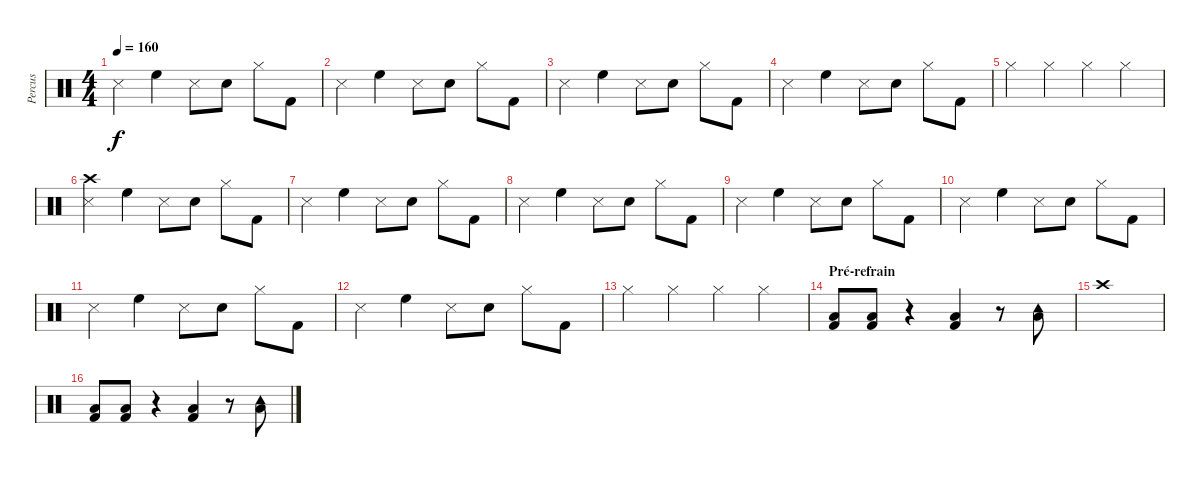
\track ("Percus" "Percus") {instrument percussion}
\staff {score}
\articulation defaults
\ts (4 4)
\tempo 160
\clef neutral
\ks c "Snare (side stick) 3".4{dy f} "High Floor Tom (hit)".4 "Snare (side stick) 3".8 "Snare (hit) 2".8 "Hi-Hat (closed)".8 "Kick (hit) 2".8
|
"Snare (side stick) 3".4 "High Floor Tom (hit)".4 "Snare (side stick) 3".8 "Snare (hit) 2".8 "Hi-Hat (closed)".8 "Kick (hit) 2".8 |
"Snare (side stick) 3".4 "High Floor Tom (hit)".4 "Snare (side stick) 3".8 "Snare (hit) 2".8 "Hi-Hat (closed)".8 "Kick (hit) 2".8 |
"Snare (side stick) 3".4 "High Floor Tom (hit)".4 "Snare (side stick) 3".8 "Snare (hit) 2".8 "Hi-Hat (closed)".8 "Kick (hit) 2".8 |
"Hi-Hat (closed)".4 "Hi-Hat (closed)".4 "Hi-Hat (closed)".4 "Hi-Hat (closed)".4 |
("Crash high (hit)" "Snare (side stick) 3").4 "High Floor Tom (hit)".4 "Snare (side stick) 3".8 "Snare (hit) 2".8 "Hi-Hat (closed)".8 "Kick (hit) 2".8 |
"Snare (side stick) 3".4 "High Floor Tom (hit)".4 "Snare (side stick) 3".8 "Snare (hit) 2".8 "Hi-Hat (closed)".8 "Kick (hit) 2".8 |
"Snare (side stick) 3".4 "High Floor Tom (hit)".4 "Snare (side stick) 3".8 "Snare (hit) 2".8 "Hi-Hat (closed)".8 "Kick (hit) 2".8 |
"Snare (side stick) 3".4 "High Floor Tom (hit)".4 "Snare (side stick) 3".8 "Snare (hit) 2".8 "Hi-Hat (closed)".8 "Kick (hit) 2".8 |
"Snare (side stick) 3".4 "High Floor Tom (hit)".4 "Snare (side stick) 3".8 "Snare (hit) 2".8 "Hi-Hat (closed)".8 "Kick (hit) 2".8 |
"Snare (side stick) 3".4 "High Floor Tom (hit)".4 "Snare (side stick) 3".8 "Snare (hit) 2".8 "Hi-Hat (closed)".8 "Kick (hit) 2".8 |
"Snare (side stick) 3".4 "High Floor Tom (hit)".4 "Snare (side stick) 3".8 "Snare (hit) 2".8 "Hi-Hat (closed)".8 "Kick (hit) 2".8 |
"Hi-Hat (closed)".4 "Hi-Hat (closed)".4 "Hi-Hat (closed)".4 "Hi-Hat (closed)".4 |
\section ("" "Pré-refrain")
("Kick (hit) 2" "Low Tom (hit)").8 ("Kick (hit) 2" "Low Tom (hit)").8 r.4 ("Kick (hit) 2" "Low Tom (hit)").4 r.8 ("Tambourine (hit)" "Low Floor Tom (hit)").8 |
"Crash high (hit)".1 |
("Kick (hit) 2" "Low Tom (hit)").8 ("Kick (hit) 2" "Low Tom (hit)").8 r.4 ("Kick (hit) 2" "Low Tom (hit)").4 r.8 ("Tambourine (hit)" "Low Floor Tom (hit)").8
